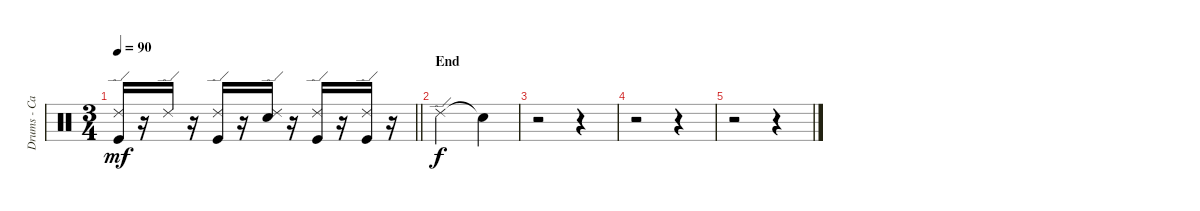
\track ("Drums - Carla Azar" "Drums - Ca") {instrument percussion}
\staff {score}
\articulation defaults
\ts (3 4)
\tempo 90
\clef neutral
\barLineRight lightlight
\ks c
("Ride (edge) 2" "Kick (hit)").16{dy mf} r.16 "Ride (edge) 2".16 r.16 ("Ride (edge) 2" "Kick (hit)").16 r.16 ("Ride (edge) 2" "Snare (hit) 2").16 r.16 ("Ride (edge) 2" "Kick (hit)").16 r.16 ("Ride (edge) 2" "Kick (hit)").16 r.16 |
\section ("" "End")
"Ride (edge) 2".2{dy f} "Snare (hit)"{t}.4 |
r.2 r.4 |
r.2 r.4 |
r.2 r.4
